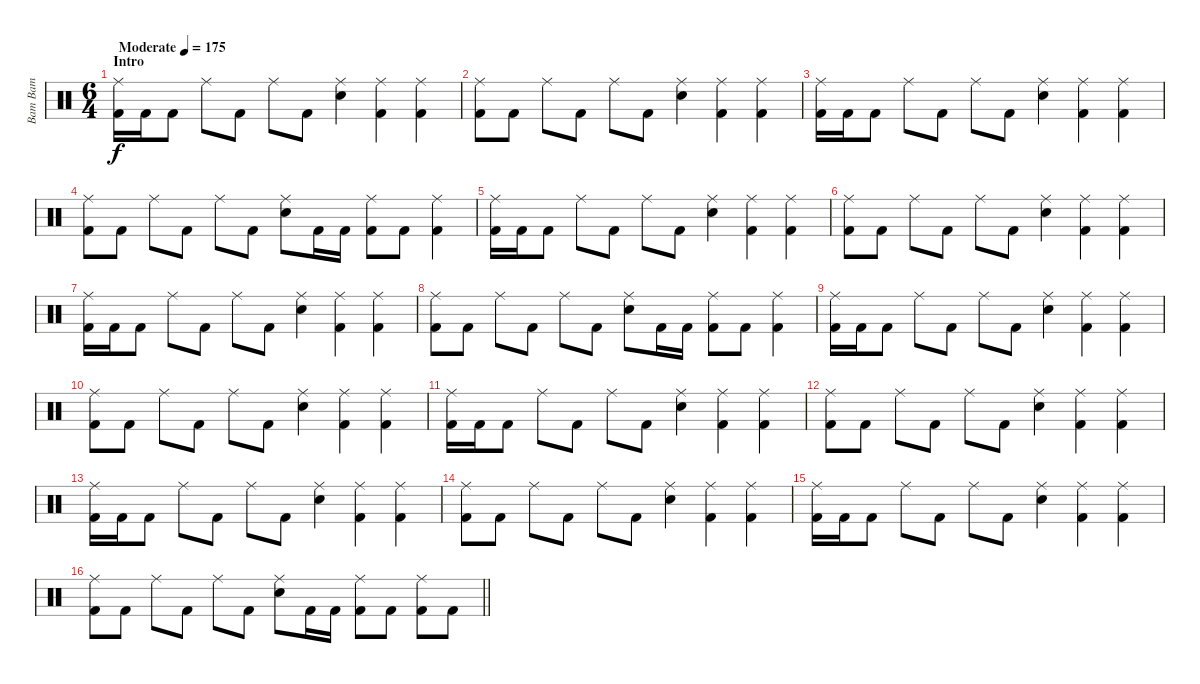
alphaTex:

\track ("Bam Bam" "Bam Bam") {instrument percussion}
\staff {score}
\articulation defaults
\ts (6 4)
\section ("" "Intro")
\tempo (175 "Moderate")
\clef neutral
\ks c
("Ride (middle)" "Kick (hit) 2").16{dy f} "Kick (hit) 2".16 "Kick (hit) 2".8 "Ride (middle)".8 "Kick (hit) 2".8 "Ride (middle)".8 "Kick (hit) 2".8 ("Ride (middle)" "Electric Snare (hit)").4 ("Ride (middle)" "Kick (hit) 2").4 ("Ride (middle)" "Kick (hit) 2").4 |
("Ride (middle)" "Kick (hit) 2").8 "Kick (hit) 2".8 "Ride (middle)".8 "Kick (hit) 2".8 "Ride (middle)".8 "Kick (hit) 2".8 ("Ride (middle)" "Electric Snare (hit)").4 ("Ride (middle)" "Kick (hit) 2").4 ("Ride (middle)" "Kick (hit) 2").4 |
("Ride (middle)" "Kick (hit) 2").16 "Kick (hit) 2".16 "Kick (hit) 2".8 "Ride (middle)".8 "Kick (hit) 2".8 "Ride (middle)".8 "Kick (hit) 2".8 ("Ride (middle)" "Electric Snare (hit)").4 ("Ride (middle)" "Kick (hit) 2").4 ("Ride (middle)" "Kick (hit) 2").4 |
("Ride (middle)" "Kick (hit) 2").8 "Kick (hit) 2".8 "Ride (middle)".8 "Kick (hit) 2".8 "Ride (middle)".8 "Kick (hit) 2".8 ("Ride (middle)" "Electric Snare (hit)").8 "Kick (hit) 2".16 "Kick (hit) 2".16 ("Ride (middle)" "Kick (hit) 2").8 "Kick (hit) 2".8 ("Ride (middle)" "Kick (hit) 2").4 |
("Ride (middle)" "Kick (hit) 2").16 "Kick (hit) 2".16 "Kick (hit) 2".8 "Ride (middle)".8 "Kick (hit) 2".8 "Ride (middle)".8 "Kick (hit) 2".8 ("Ride (middle)" "Electric Snare (hit)").4 ("Ride (middle)" "Kick (hit) 2").4 ("Ride (middle)" "Kick (hit) 2").4 |
("Ride (middle)" "Kick (hit) 2").8 "Kick (hit) 2".8 "Ride (middle)".8 "Kick (hit) 2".8 "Ride (middle)".8 "Kick (hit) 2".8 ("Ride (middle)" "Electric Snare (hit)").4 ("Ride (middle)" "Kick (hit) 2").4 ("Ride (middle)" "Kick (hit) 2").4 |
("Ride (middle)" "Kick (hit) 2").16 "Kick (hit) 2".16 "Kick (hit) 2".8 "Ride (middle)".8 "Kick (hit) 2".8 "Ride (middle)".8 "Kick (hit) 2".8 ("Ride (middle)" "Electric Snare (hit)").4 ("Ride (middle)" "Kick (hit) 2").4 ("Ride (middle)" "Kick (hit) 2").4 |
("Ride (middle)" "Kick (hit) 2").8 "Kick (hit) 2".8 "Ride (middle)".8 "Kick (hit) 2".8 "Ride (middle)".8 "Kick (hit) 2".8 ("Ride (middle)" "Electric Snare (hit)").8 "Kick (hit) 2".16 "Kick (hit) 2".16 ("Ride (middle)" "Kick (hit) 2").8 "Kick (hit) 2".8 ("Ride (middle)" "Kick (hit) 2").4 |
("Ride (middle)" "Kick (hit) 2").16 "Kick (hit) 2".16 "Kick (hit) 2".8 "Ride (middle)".8 "Kick (hit) 2".8 "Ride (middle)".8 "Kick (hit) 2".8 ("Ride (middle)" "Electric Snare (hit)").4 ("Ride (middle)" "Kick (hit) 2").4 ("Ride (middle)" "Kick (hit) 2").4 |
("Ride (middle)" "Kick (hit) 2").8 "Kick (hit) 2".8 "Ride (middle)".8 "Kick (hit) 2".8 "Ride (middle)".8 "Kick (hit) 2".8 ("Ride (middle)" "Electric Snare (hit)").4 ("Ride (middle)" "Kick (hit) 2").4 ("Ride (middle)" "Kick (hit) 2").4 |
("Ride (middle)" "Kick (hit) 2").16 "Kick (hit) 2".16 "Kick (hit) 2".8 "Ride (middle)".8 "Kick (hit) 2".8 "Ride (middle)".8 "Kick (hit) 2".8 ("Ride (middle)" "Electric Snare (hit)").4 ("Ride (middle)" "Kick (hit) 2").4 ("Ride (middle)" "Kick (hit) 2").4 |
("Ride (middle)" "Kick (hit) 2").8 "Kick (hit) 2".8 "Ride (middle)".8 "Kick (hit) 2".8 "Ride (middle)".8 "Kick (hit) 2".8 ("Ride (middle)" "Electric Snare (hit)").4 ("Ride (middle)" "Kick (hit) 2").4 ("Ride (middle)" "Kick (hit) 2").4 |
("Ride (middle)" "Kick (hit) 2").16 "Kick (hit) 2".16 "Kick (hit) 2".8 "Ride (middle)".8 "Kick (hit) 2".8 "Ride (middle)".8 "Kick (hit) 2".8 ("Ride (middle)" "Electric Snare (hit)").4 ("Ride (middle)" "Kick (hit) 2").4 ("Ride (middle)" "Kick (hit) 2").4 |
("Ride (middle)" "Kick (hit) 2").8 "Kick (hit) 2".8 "Ride (middle)".8 "Kick (hit) 2".8 "Ride (middle)".8 "Kick (hit) 2".8 ("Ride (middle)" "Electric Snare (hit)").4 ("Ride (middle)" "Kick (hit) 2").4 ("Ride (middle)" "Kick (hit) 2").4 |
("Ride (middle)" "Kick (hit) 2").16 "Kick (hit) 2".16 "Kick (hit) 2".8 "Ride (middle)".8 "Kick (hit) 2".8 "Ride (middle)".8 "Kick (hit) 2".8 ("Ride (middle)" "Electric Snare (hit)").4 ("Ride (middle)" "Kick (hit) 2").4 ("Ride (middle)" "Kick (hit) 2").4 |
\barLineRight lightlight
("Ride (middle)" "Kick (hit) 2").8 "Kick (hit) 2".8 "Ride (middle)".8 "Kick (hit) 2".8 "Ride (middle)".8 "Kick (hit) 2".8 ("Ride (middle)" "Electric Snare (hit)").8 "Kick (hit) 2".16 "Kick (hit) 2".16 ("Ride (middle)" "Kick (hit) 2").8 "Kick (hit) 2".8 ("Ride (middle)" "Kick (hit) 2").8 "Kick (hit) 2".8
